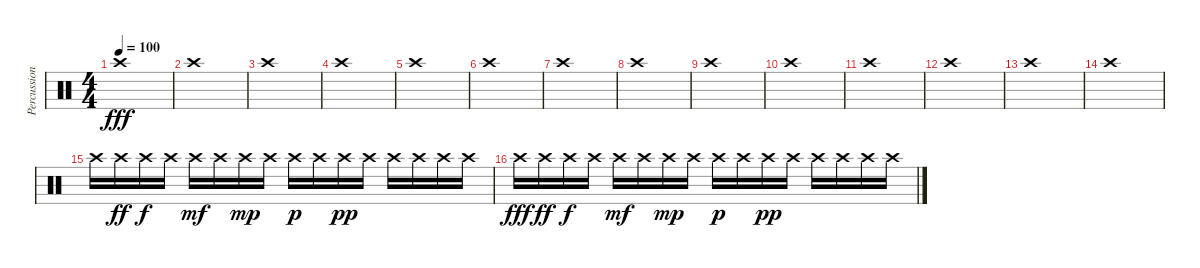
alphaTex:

\track ("Percussions" "Percussion") {instrument percussion}
\staff {score}
\articulation defaults
\ts (4 4)
\tempo 100
\clef neutral
\ks c "Crash high (hit)".1{dy fff}
|
"Crash high (hit)".1 |
"Crash high (hit)".1 |
"Crash high (hit)".1 |
"Crash high (hit)".1 |
"Crash high (hit)".1 |
"Crash high (hit)".1 |
"Crash high (hit)".1 |
"Crash high (hit)".1 |
"Crash high (hit)".1 |
"Crash high (hit)".1 |
"Crash high (hit)".1 |
"Crash high (hit)".1 |
"Crash high (hit)".1 |
"Crash high (hit)".16 "Crash high (hit)".16{dy ff} "Crash high (hit)".16{dy f} "Crash high (hit)".16 "Crash high (hit)".16{dy mf} "Crash high (hit)".16 "Crash high (hit)".16{dy mp} "Crash high (hit)".16 "Crash high (hit)".16{dy p} "Crash high (hit)".16 "Crash high (hit)".16{dy pp} "Crash high (hit)".16 "Crash high (hit)".16 "Crash high (hit)".16 "Crash high (hit)".16 "Crash high (hit)".16 |
"Crash high (hit)".16{dy fff} "Crash high (hit)".16{dy ff} "Crash high (hit)".16{dy f} "Crash high (hit)".16 "Crash high (hit)".16{dy mf} "Crash high (hit)".16 "Crash high (hit)".16{dy mp} "Crash high (hit)".16 "Crash high (hit)".16{dy p} "Crash high (hit)".16 "Crash high (hit)".16{dy pp} "Crash high (hit)".16 "Crash high (hit)".16 "Crash high (hit)".16 "Crash high (hit)".16 "Crash high (hit)".16
